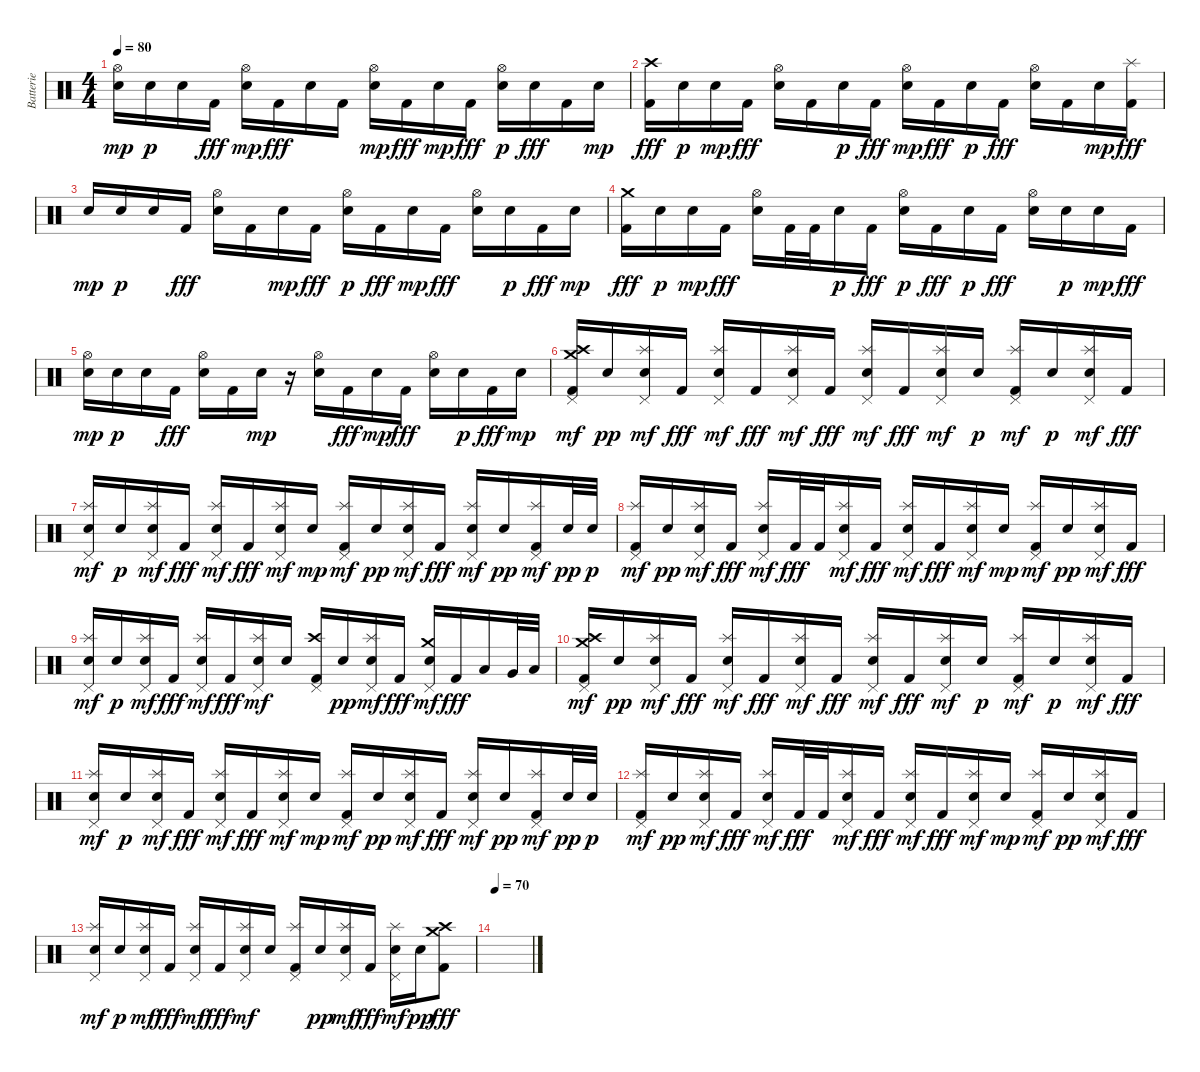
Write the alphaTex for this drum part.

\track ("Batterie" "Batterie") {instrument percussion}
\staff {score}
\articulation defaults
\ts (4 4)
\tempo 80
\clef neutral
\ks c
("Hi-Hat (open)" "Electric Snare (hit)").16{dy mp} "Electric Snare (hit)".16{dy p} "Electric Snare (hit)".16 "Kick (hit) 2".16{dy fff} ("Hi-Hat (open)" "Electric Snare (hit)").16{dy mp} "Kick (hit) 2".16{dy fff} "Electric Snare (hit)".16 "Kick (hit) 2".16 ("Hi-Hat (open)" "Electric Snare (hit)").16{dy mp} "Kick (hit) 2".16{dy fff} "Electric Snare (hit)".16{dy mp} "Kick (hit) 2".16{dy fff} ("Hi-Hat (open)" "Electric Snare (hit)").16{dy p} "Electric Snare (hit)".16{dy fff} "Kick (hit) 2".16 "Electric Snare (hit)".16{dy mp} |
("Crash high (hit)" "Kick (hit) 2").16{dy fff} "Electric Snare (hit)".16{dy p} "Electric Snare (hit)".16{dy mp} "Kick (hit) 2".16{dy fff} ("Hi-Hat (open)" "Electric Snare (hit)").16 "Kick (hit) 2".16 "Electric Snare (hit)".16{dy p} "Kick (hit) 2".16{dy fff} ("Hi-Hat (open)" "Electric Snare (hit)").16{dy mp} "Kick (hit) 2".16{dy fff} "Electric Snare (hit)".16{dy p} "Kick (hit) 2".16{dy fff} ("Hi-Hat (open)" "Electric Snare (hit)").16 "Kick (hit) 2".16 "Electric Snare (hit)".16{dy mp} ("Splash (hit)" "Kick (hit) 2").16{dy fff} |
"Electric Snare (hit)".16{dy mp} "Electric Snare (hit)".16{dy p} "Electric Snare (hit)".16 "Kick (hit) 2".16{dy fff} ("Hi-Hat (open)" "Electric Snare (hit)").16 "Kick (hit) 2".16 "Electric Snare (hit)".16{dy mp} "Kick (hit) 2".16{dy fff} ("Hi-Hat (open)" "Electric Snare (hit)").16{dy p} "Kick (hit) 2".16{dy fff} "Electric Snare (hit)".16{dy mp} "Kick (hit) 2".16{dy fff} ("Hi-Hat (open)" "Electric Snare (hit)").16 "Electric Snare (hit)".16{dy p} "Kick (hit) 2".16{dy fff} "Electric Snare (hit)".16{dy mp} |
("Crash medium (hit)" "Kick (hit) 2").16{dy fff} "Electric Snare (hit)".16{dy p} "Electric Snare (hit)".16{dy mp} "Kick (hit) 2".16{dy fff} ("Hi-Hat (open)" "Electric Snare (hit)").16 "Kick (hit) 2".32 "Kick (hit) 2".32 "Electric Snare (hit)".16{dy p} "Kick (hit) 2".16{dy fff} ("Hi-Hat (open)" "Electric Snare (hit)").16{dy p} "Kick (hit) 2".16{dy fff} "Electric Snare (hit)".16{dy p} "Kick (hit) 2".16{dy fff} ("Hi-Hat (open)" "Electric Snare (hit)").16 "Electric Snare (hit)".16{dy p} "Electric Snare (hit)".16{dy mp} "Kick (hit) 2".16{dy fff} |
("Hi-Hat (open)" "Electric Snare (hit)").16{dy mp} "Electric Snare (hit)".16{dy p} "Electric Snare (hit)".16 "Kick (hit) 2".16{dy fff} ("Hi-Hat (open)" "Electric Snare (hit)").16 "Kick (hit) 2".16 "Electric Snare (hit)".16{dy mp} r.16 ("Hi-Hat (open)" "Electric Snare (hit)").16 "Kick (hit) 2".16{dy fff} "Electric Snare (hit)".16{dy mp} "Kick (hit) 2".16{dy fff} ("Hi-Hat (open)" "Electric Snare (hit)").16 "Electric Snare (hit)".16{dy p} "Kick (hit) 2".16{dy fff} "Electric Snare (hit)".16{dy mp} |
("Crash high (hit)" "Crash medium (hit)" "Kick (hit) 2" "Pedal Hi-Hat (hit)").16{dy mf} "Electric Snare (hit)".16{dy pp} ("Splash (hit)" "Electric Snare (hit)" "Pedal Hi-Hat (hit)").16{dy mf} "Kick (hit) 2".16{dy fff} ("Splash (hit)" "Electric Snare (hit)" "Pedal Hi-Hat (hit)").16{dy mf} "Kick (hit) 2".16{dy fff} ("Splash (hit)" "Electric Snare (hit)" "Pedal Hi-Hat (hit)").16{dy mf} "Kick (hit) 2".16{dy fff} ("Splash (hit)" "Electric Snare (hit)" "Pedal Hi-Hat (hit)").16{dy mf} "Kick (hit) 2".16{dy fff} ("Splash (hit)" "Electric Snare (hit)" "Pedal Hi-Hat (hit)").16{dy mf} "Electric Snare (hit)".16{dy p} ("Splash (hit)" "Kick (hit) 2" "Pedal Hi-Hat (hit)").16{dy mf} "Electric Snare (hit)".16{dy p} ("Splash (hit)" "Electric Snare (hit)" "Pedal Hi-Hat (hit)").16{dy mf} "Kick (hit) 2".16{dy fff} |
("Splash (hit)" "Electric Snare (hit)" "Pedal Hi-Hat (hit)").16{dy mf} "Electric Snare (hit)".16{dy p} ("Splash (hit)" "Electric Snare (hit)" "Pedal Hi-Hat (hit)").16{dy mf} "Kick (hit) 2".16{dy fff} ("Splash (hit)" "Electric Snare (hit)" "Pedal Hi-Hat (hit)").16{dy mf} "Kick (hit) 2".16{dy fff} ("Splash (hit)" "Electric Snare (hit)" "Pedal Hi-Hat (hit)").16{dy mf} "Electric Snare (hit)".16{dy mp} ("Splash (hit)" "Kick (hit) 2" "Pedal Hi-Hat (hit)").16{dy mf} "Electric Snare (hit)".16{dy pp} ("Splash (hit)" "Electric Snare (hit)" "Pedal Hi-Hat (hit)").16{dy mf} "Kick (hit) 2".16{dy fff} ("Splash (hit)" "Electric Snare (hit)" "Pedal Hi-Hat (hit)").16{dy mf} "Electric Snare (hit)".16{dy pp} ("Splash (hit)" "Kick (hit) 2" "Pedal Hi-Hat (hit)").16{dy mf} "Electric Snare (hit)".32{dy pp} "Electric Snare (hit)".32{dy p} |
("Splash (hit)" "Kick (hit) 2" "Pedal Hi-Hat (hit)").16{dy mf} "Electric Snare (hit)".16{dy pp} ("Splash (hit)" "Electric Snare (hit)" "Pedal Hi-Hat (hit)").16{dy mf} "Kick (hit) 2".16{dy fff} ("Splash (hit)" "Electric Snare (hit)" "Pedal Hi-Hat (hit)").16{dy mf} "Kick (hit) 2".32{dy fff} "Kick (hit) 2".32 ("Splash (hit)" "Electric Snare (hit)" "Pedal Hi-Hat (hit)").16{dy mf} "Kick (hit) 2".16{dy fff} ("Splash (hit)" "Electric Snare (hit)" "Pedal Hi-Hat (hit)").16{dy mf} "Kick (hit) 2".16{dy fff} ("Splash (hit)" "Electric Snare (hit)" "Pedal Hi-Hat (hit)").16{dy mf} "Electric Snare (hit)".16{dy mp} ("Splash (hit)" "Kick (hit) 2" "Pedal Hi-Hat (hit)").16{dy mf} "Electric Snare (hit)".16{dy pp} ("Splash (hit)" "Electric Snare (hit)" "Pedal Hi-Hat (hit)").16{dy mf} "Kick (hit) 2".16{dy fff} |
("Splash (hit)" "Electric Snare (hit)" "Pedal Hi-Hat (hit)").16{dy mf} "Electric Snare (hit)".16{dy p} ("Splash (hit)" "Electric Snare (hit)" "Pedal Hi-Hat (hit)").16{dy mf} "Kick (hit) 2".16{dy fff} ("Splash (hit)" "Electric Snare (hit)" "Pedal Hi-Hat (hit)").16{dy mf} "Kick (hit) 2".16{dy fff} ("Splash (hit)" "Electric Snare (hit)" "Pedal Hi-Hat (hit)").16{dy mf} "Electric Snare (hit)".16 ("Crash high (hit)" "Kick (hit) 2" "Pedal Hi-Hat (hit)").16 "Electric Snare (hit)".16{dy pp} ("Splash (hit)" "Electric Snare (hit)" "Pedal Hi-Hat (hit)").16{dy mf} "Kick (hit) 2".16{dy fff} ("Crash medium (hit)" "Electric Snare (hit)" "Pedal Hi-Hat (hit)").16{dy mf} "Kick (hit) 2".16{dy fff} "Low Tom (hit)".16 "Very Low Tom (hit)".32 "Low Floor Tom (hit)".32 |
("Crash high (hit)" "Crash medium (hit)" "Kick (hit) 2" "Pedal Hi-Hat (hit)").16{dy mf} "Electric Snare (hit)".16{dy pp} ("Splash (hit)" "Electric Snare (hit)" "Pedal Hi-Hat (hit)").16{dy mf} "Kick (hit) 2".16{dy fff} ("Splash (hit)" "Electric Snare (hit)" "Pedal Hi-Hat (hit)").16{dy mf} "Kick (hit) 2".16{dy fff} ("Splash (hit)" "Electric Snare (hit)" "Pedal Hi-Hat (hit)").16{dy mf} "Kick (hit) 2".16{dy fff} ("Splash (hit)" "Electric Snare (hit)" "Pedal Hi-Hat (hit)").16{dy mf} "Kick (hit) 2".16{dy fff} ("Splash (hit)" "Electric Snare (hit)" "Pedal Hi-Hat (hit)").16{dy mf} "Electric Snare (hit)".16{dy p} ("Splash (hit)" "Kick (hit) 2" "Pedal Hi-Hat (hit)").16{dy mf} "Electric Snare (hit)".16{dy p} ("Splash (hit)" "Electric Snare (hit)" "Pedal Hi-Hat (hit)").16{dy mf} "Kick (hit) 2".16{dy fff} |
("Splash (hit)" "Electric Snare (hit)" "Pedal Hi-Hat (hit)").16{dy mf} "Electric Snare (hit)".16{dy p} ("Splash (hit)" "Electric Snare (hit)" "Pedal Hi-Hat (hit)").16{dy mf} "Kick (hit) 2".16{dy fff} ("Splash (hit)" "Electric Snare (hit)" "Pedal Hi-Hat (hit)").16{dy mf} "Kick (hit) 2".16{dy fff} ("Splash (hit)" "Electric Snare (hit)" "Pedal Hi-Hat (hit)").16{dy mf} "Electric Snare (hit)".16{dy mp} ("Splash (hit)" "Kick (hit) 2" "Pedal Hi-Hat (hit)").16{dy mf} "Electric Snare (hit)".16{dy pp} ("Splash (hit)" "Electric Snare (hit)" "Pedal Hi-Hat (hit)").16{dy mf} "Kick (hit) 2".16{dy fff} ("Splash (hit)" "Electric Snare (hit)" "Pedal Hi-Hat (hit)").16{dy mf} "Electric Snare (hit)".16{dy pp} ("Splash (hit)" "Kick (hit) 2" "Pedal Hi-Hat (hit)").16{dy mf} "Electric Snare (hit)".32{dy pp} "Electric Snare (hit)".32{dy p} |
("Splash (hit)" "Kick (hit) 2" "Pedal Hi-Hat (hit)").16{dy mf} "Electric Snare (hit)".16{dy pp} ("Splash (hit)" "Electric Snare (hit)" "Pedal Hi-Hat (hit)").16{dy mf} "Kick (hit) 2".16{dy fff} ("Splash (hit)" "Electric Snare (hit)" "Pedal Hi-Hat (hit)").16{dy mf} "Kick (hit) 2".32{dy fff} "Kick (hit) 2".32 ("Splash (hit)" "Electric Snare (hit)" "Pedal Hi-Hat (hit)").16{dy mf} "Kick (hit) 2".16{dy fff} ("Splash (hit)" "Electric Snare (hit)" "Pedal Hi-Hat (hit)").16{dy mf} "Kick (hit) 2".16{dy fff} ("Splash (hit)" "Electric Snare (hit)" "Pedal Hi-Hat (hit)").16{dy mf} "Electric Snare (hit)".16{dy mp} ("Splash (hit)" "Kick (hit) 2" "Pedal Hi-Hat (hit)").16{dy mf} "Electric Snare (hit)".16{dy pp} ("Splash (hit)" "Electric Snare (hit)" "Pedal Hi-Hat (hit)").16{dy mf} "Kick (hit) 2".16{dy fff} |
("Splash (hit)" "Electric Snare (hit)" "Pedal Hi-Hat (hit)").16{dy mf} "Electric Snare (hit)".16{dy p} ("Splash (hit)" "Electric Snare (hit)" "Pedal Hi-Hat (hit)").16{dy mf} "Kick (hit) 2".16{dy fff} ("Splash (hit)" "Electric Snare (hit)" "Pedal Hi-Hat (hit)").16{dy mf} "Kick (hit) 2".16{dy fff} ("Splash (hit)" "Electric Snare (hit)" "Pedal Hi-Hat (hit)").16{dy mf} "Electric Snare (hit)".16 ("Splash (hit)" "Kick (hit) 2" "Pedal Hi-Hat (hit)").16 "Electric Snare (hit)".16{dy pp} ("Splash (hit)" "Electric Snare (hit)" "Pedal Hi-Hat (hit)").16{dy mf} "Kick (hit) 2".16{dy fff} ("Splash (hit)" "Electric Snare (hit)" "Pedal Hi-Hat (hit)").16{dy mf} "Electric Snare (hit)".16{dy pp} ("Crash high (hit)" "Crash medium (hit)" "Kick (hit) 2").8{dy fff} |
\tempo 70
